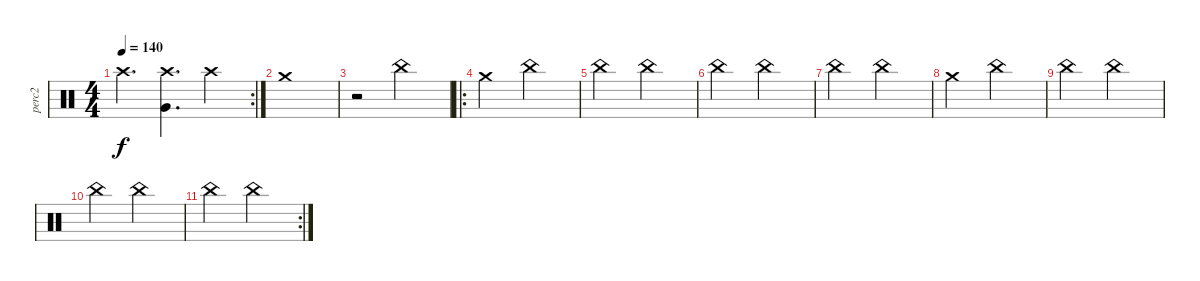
\track ("perc2" "perc2") {instrument percussion}
\staff {score}
\articulation defaults
\rc 2
\ts (4 4)
\tempo 140
\clef neutral
\ks c "Crash high (hit)".4{d dy f}
("Crash high (hit)" "Very Low Tom (hit)").4{d} "Crash high (hit)".4 |
"Crash medium (hit)".1 |
r.2 "China (hit)".2 |
\ro "Crash medium (hit)".2 "China (hit)".2
|
"China (hit)".2 "China (hit)".2 |
"China (hit)".2 "China (hit)".2 |
"China (hit)".2 "China (hit)".2 |
"Crash medium (hit)".2 "China (hit)".2 |
"China (hit)".2 "China (hit)".2 |
"China (hit)".2 "China (hit)".2 |
\rc 2 "China (hit)".2 "China (hit)".2
